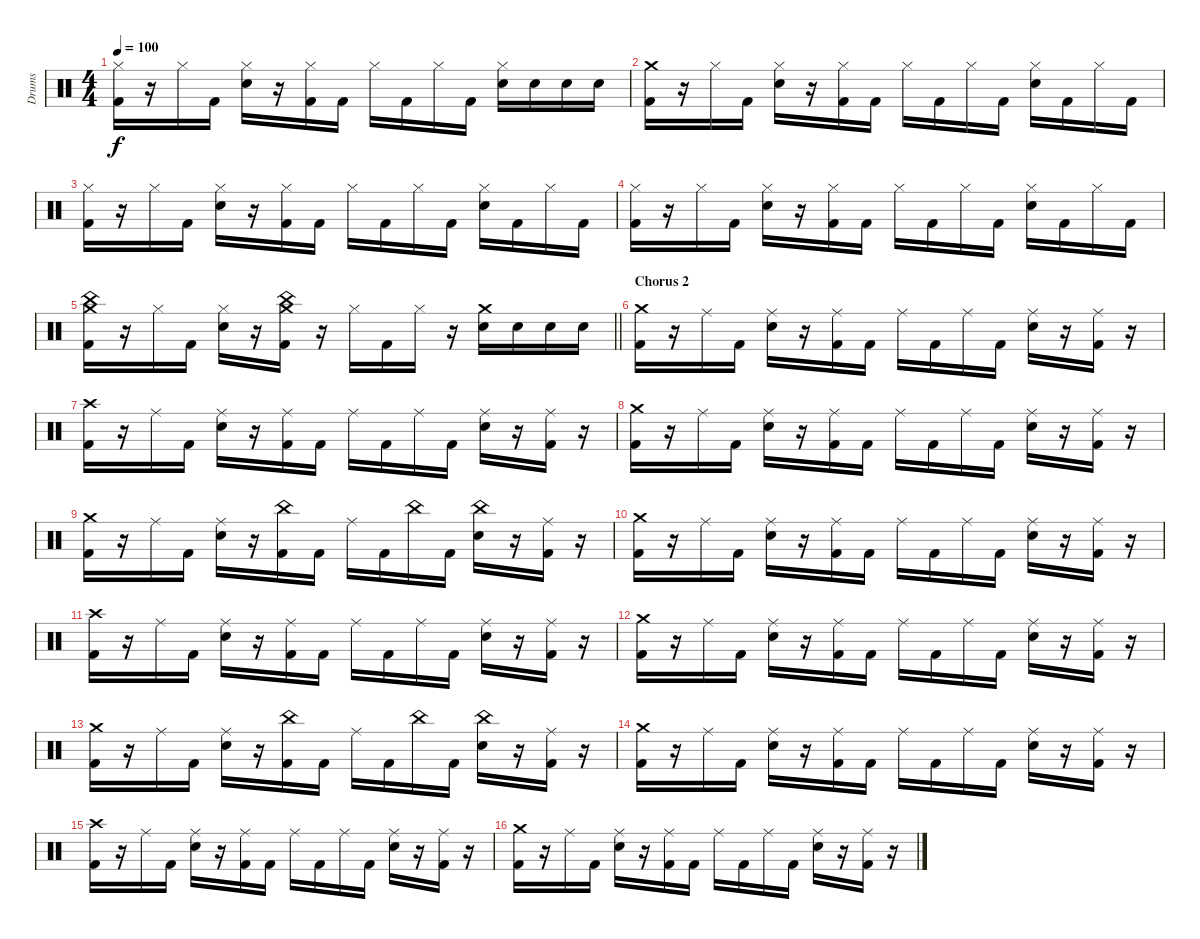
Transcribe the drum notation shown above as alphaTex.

\track ("Drums" "Drums") {instrument percussion}
\staff {score}
\articulation defaults
\ts (4 4)
\tempo 100
\clef neutral
\ks c
("Hi-Hat (closed)" "Kick (hit) 2").16{dy f} r.16 "Hi-Hat (closed)".16 "Kick (hit) 2".16 ("Hi-Hat (closed)" "Electric Snare (hit)").16 r.16 ("Hi-Hat (closed)" "Kick (hit) 2").16 "Kick (hit) 2".16 "Hi-Hat (closed)".16 "Kick (hit) 2".16 "Hi-Hat (closed)".16 "Kick (hit) 2".16 ("Hi-Hat (closed)" "Electric Snare (hit)").16 "Electric Snare (hit)".16 "Electric Snare (hit)".16 "Electric Snare (hit)".16 |
("Crash medium (hit)" "Kick (hit) 2").16 r.16 "Hi-Hat (closed)".16 "Kick (hit) 2".16 ("Hi-Hat (closed)" "Electric Snare (hit)").16 r.16 ("Hi-Hat (closed)" "Kick (hit) 2").16 "Kick (hit) 2".16 "Hi-Hat (closed)".16 "Kick (hit) 2".16 "Hi-Hat (closed)".16 "Kick (hit) 2".16 ("Hi-Hat (closed)" "Electric Snare (hit)").16 "Kick (hit) 2".16 "Hi-Hat (closed)".16 "Kick (hit) 2".16 |
("Hi-Hat (closed)" "Kick (hit) 2").16 r.16 "Hi-Hat (closed)".16 "Kick (hit) 2".16 ("Hi-Hat (closed)" "Electric Snare (hit)").16 r.16 ("Hi-Hat (closed)" "Kick (hit) 2").16 "Kick (hit) 2".16 "Hi-Hat (closed)".16 "Kick (hit) 2".16 "Hi-Hat (closed)".16 "Kick (hit) 2".16 ("Hi-Hat (closed)" "Electric Snare (hit)").16 "Kick (hit) 2".16 "Hi-Hat (closed)".16 "Kick (hit) 2".16 |
("Hi-Hat (closed)" "Kick (hit) 2").16 r.16 "Hi-Hat (closed)".16 "Kick (hit) 2".16 ("Hi-Hat (closed)" "Electric Snare (hit)").16 r.16 ("Hi-Hat (closed)" "Kick (hit) 2").16 "Kick (hit) 2".16 "Hi-Hat (closed)".16 "Kick (hit) 2".16 "Hi-Hat (closed)".16 "Kick (hit) 2".16 ("Hi-Hat (closed)" "Electric Snare (hit)").16 "Kick (hit) 2".16 "Hi-Hat (closed)".16 "Kick (hit) 2".16 |
\barLineRight lightlight
("Crash medium (hit)" "China (hit)" "Kick (hit) 2").16 r.16 "Hi-Hat (closed)".16 "Kick (hit) 2".16 ("Hi-Hat (closed)" "Electric Snare (hit)").16 r.16 ("Crash medium (hit)" "China (hit)" "Kick (hit) 2").16 r.16 "Hi-Hat (closed)".16 "Kick (hit) 2".16 "Hi-Hat (closed)".16 r.16 ("Crash medium (hit)" "Electric Snare (hit)").16 "Electric Snare (hit)".16 "Electric Snare (hit)".16 "Electric Snare (hit)".16 |
\section ("" "Chorus 2")
("Crash medium (hit)" "Kick (hit) 2").16 r.16 "Ride (middle)".16 "Kick (hit) 2".16 ("Ride (middle)" "Electric Snare (hit)").16 r.16 ("Ride (middle)" "Kick (hit) 2").16 "Kick (hit) 2".16 "Ride (middle)".16 "Kick (hit) 2".16 "Ride (middle)".16 "Kick (hit) 2".16 ("Ride (middle)" "Electric Snare (hit)").16 r.16 ("Ride (middle)" "Kick (hit) 2").16 r.16 |
("Crash high (hit)" "Kick (hit) 2").16 r.16 "Ride (middle)".16 "Kick (hit) 2".16 ("Ride (middle)" "Electric Snare (hit)").16 r.16 ("Ride (middle)" "Kick (hit) 2").16 "Kick (hit) 2".16 "Ride (middle)".16 "Kick (hit) 2".16 "Ride (middle)".16 "Kick (hit) 2".16 ("Ride (middle)" "Electric Snare (hit)").16 r.16 ("Ride (middle)" "Kick (hit) 2").16 r.16 |
("Crash medium (hit)" "Kick (hit) 2").16 r.16 "Ride (middle)".16 "Kick (hit) 2".16 ("Ride (middle)" "Electric Snare (hit)").16 r.16 ("Ride (middle)" "Kick (hit) 2").16 "Kick (hit) 2".16 "Ride (middle)".16 "Kick (hit) 2".16 "Ride (middle)".16 "Kick (hit) 2".16 ("Ride (middle)" "Electric Snare (hit)").16 r.16 ("Ride (middle)" "Kick (hit) 2").16 r.16 |
("Crash medium (hit)" "Kick (hit) 2").16 r.16 "Ride (middle)".16 "Kick (hit) 2".16 ("Ride (middle)" "Electric Snare (hit)").16 r.16 ("China (hit)" "Kick (hit) 2").16 "Kick (hit) 2".16 "Ride (middle)".16 "Kick (hit) 2".16 "China (hit)".16 "Kick (hit) 2".16 ("China (hit)" "Electric Snare (hit)").16 r.16 ("Ride (middle)" "Kick (hit) 2").16 r.16 |
("Crash medium (hit)" "Kick (hit) 2").16 r.16 "Ride (middle)".16 "Kick (hit) 2".16 ("Ride (middle)" "Electric Snare (hit)").16 r.16 ("Ride (middle)" "Kick (hit) 2").16 "Kick (hit) 2".16 "Ride (middle)".16 "Kick (hit) 2".16 "Ride (middle)".16 "Kick (hit) 2".16 ("Ride (middle)" "Electric Snare (hit)").16 r.16 ("Ride (middle)" "Kick (hit) 2").16 r.16 |
("Crash high (hit)" "Kick (hit) 2").16 r.16 "Ride (middle)".16 "Kick (hit) 2".16 ("Ride (middle)" "Electric Snare (hit)").16 r.16 ("Ride (middle)" "Kick (hit) 2").16 "Kick (hit) 2".16 "Ride (middle)".16 "Kick (hit) 2".16 "Ride (middle)".16 "Kick (hit) 2".16 ("Ride (middle)" "Electric Snare (hit)").16 r.16 ("Ride (middle)" "Kick (hit) 2").16 r.16 |
("Crash medium (hit)" "Kick (hit) 2").16 r.16 "Ride (middle)".16 "Kick (hit) 2".16 ("Ride (middle)" "Electric Snare (hit)").16 r.16 ("Ride (middle)" "Kick (hit) 2").16 "Kick (hit) 2".16 "Ride (middle)".16 "Kick (hit) 2".16 "Ride (middle)".16 "Kick (hit) 2".16 ("Ride (middle)" "Electric Snare (hit)").16 r.16 ("Ride (middle)" "Kick (hit) 2").16 r.16 |
("Crash medium (hit)" "Kick (hit) 2").16 r.16 "Ride (middle)".16 "Kick (hit) 2".16 ("Ride (middle)" "Electric Snare (hit)").16 r.16 ("China (hit)" "Kick (hit) 2").16 "Kick (hit) 2".16 "Ride (middle)".16 "Kick (hit) 2".16 "China (hit)".16 "Kick (hit) 2".16 ("China (hit)" "Electric Snare (hit)").16 r.16 ("Ride (middle)" "Kick (hit) 2").16 r.16 |
("Crash medium (hit)" "Kick (hit) 2").16 r.16 "Ride (middle)".16 "Kick (hit) 2".16 ("Ride (middle)" "Electric Snare (hit)").16 r.16 ("Ride (middle)" "Kick (hit) 2").16 "Kick (hit) 2".16 "Ride (middle)".16 "Kick (hit) 2".16 "Ride (middle)".16 "Kick (hit) 2".16 ("Ride (middle)" "Electric Snare (hit)").16 r.16 ("Ride (middle)" "Kick (hit) 2").16 r.16 |
("Crash high (hit)" "Kick (hit) 2").16 r.16 "Ride (middle)".16 "Kick (hit) 2".16 ("Ride (middle)" "Electric Snare (hit)").16 r.16 ("Ride (middle)" "Kick (hit) 2").16 "Kick (hit) 2".16 "Ride (middle)".16 "Kick (hit) 2".16 "Ride (middle)".16 "Kick (hit) 2".16 ("Ride (middle)" "Electric Snare (hit)").16 r.16 ("Ride (middle)" "Kick (hit) 2").16 r.16 |
("Crash medium (hit)" "Kick (hit) 2").16 r.16 "Ride (middle)".16 "Kick (hit) 2".16 ("Ride (middle)" "Electric Snare (hit)").16 r.16 ("Ride (middle)" "Kick (hit) 2").16 "Kick (hit) 2".16 "Ride (middle)".16 "Kick (hit) 2".16 "Ride (middle)".16 "Kick (hit) 2".16 ("Ride (middle)" "Electric Snare (hit)").16 r.16 ("Ride (middle)" "Kick (hit) 2").16 r.16
